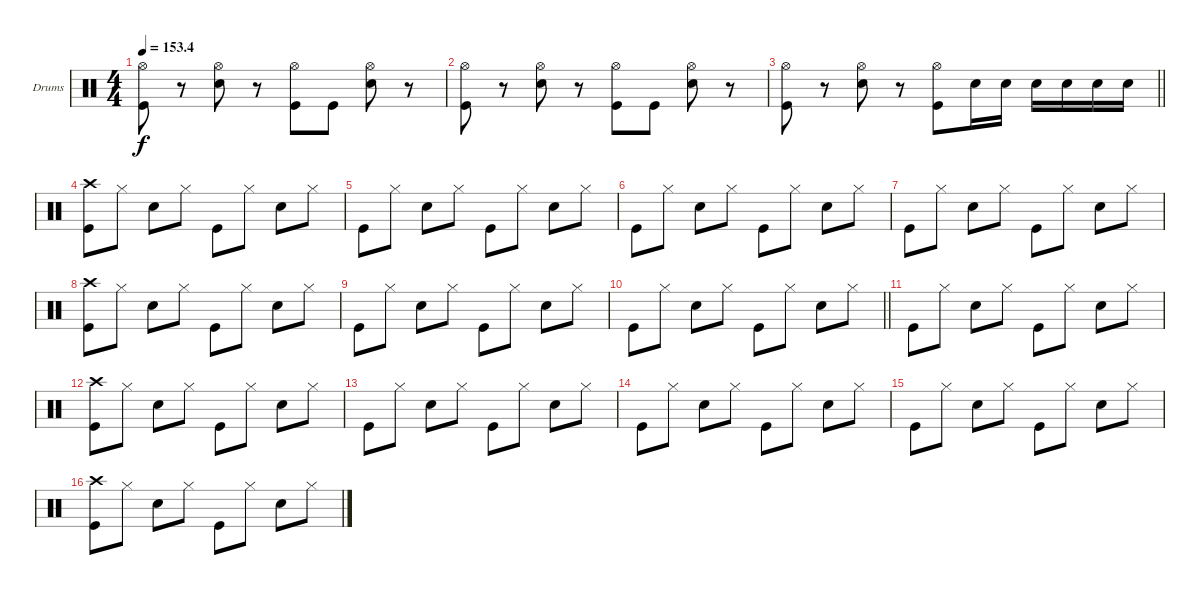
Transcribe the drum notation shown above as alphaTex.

\bracketExtendMode groupsimilarinstruments
\firstSystemTrackNameOrientation horizontal
\otherSystemsTrackNameOrientation horizontal
\track ("Drumkit" "Drums") {instrument percussion}
\staff {score}
\articulation defaults
\ts (4 4)
\tempo
153.4
\accidentals auto
\clef neutral
\ottava regular
\simile none
\ks c
("Hi-Hat (open)" "Kick (hit)").8{dy f} r.8 ("Hi-Hat (open)" "Snare (hit) 2").8 r.8 ("Hi-Hat (open)" "Kick (hit)").8 "Kick (hit)".8 ("Hi-Hat (open)" "Snare (hit) 2").8 r.8 |
("Hi-Hat (open)" "Kick (hit)").8 r.8 ("Hi-Hat (open)" "Snare (hit) 2").8 r.8 ("Hi-Hat (open)" "Kick (hit)").8 "Kick (hit)".8 ("Hi-Hat (open)" "Snare (hit) 2").8 r.8 |
\barLineRight lightlight
("Hi-Hat (open)" "Kick (hit)").8 r.8 ("Hi-Hat (open)" "Snare (hit) 2").8 r.8 ("Hi-Hat (open)" "Kick (hit)").8 "Snare (hit) 2".16 "Snare (hit) 2".16 "Snare (hit) 2".16 "Snare (hit) 2".16 "Snare (hit) 2".16 "Snare (hit) 2".16 |
("Crash high (hit)" "Kick (hit)").8 "Hi-Hat (closed)".8 "Snare (hit) 2".8 "Hi-Hat (closed)".8 "Kick (hit)".8 "Hi-Hat (closed)".8 "Snare (hit) 2".8 "Hi-Hat (closed)".8 |
"Kick (hit)".8 "Hi-Hat (closed)".8 "Snare (hit) 2".8 "Hi-Hat (closed)".8 "Kick (hit)".8 "Hi-Hat (closed)".8 "Snare (hit) 2".8 "Hi-Hat (closed)".8 |
"Kick (hit)".8 "Hi-Hat (closed)".8 "Snare (hit) 2".8 "Hi-Hat (closed)".8 "Kick (hit)".8 "Hi-Hat (closed)".8 "Snare (hit) 2".8 "Hi-Hat (closed)".8 |
"Kick (hit)".8 "Hi-Hat (closed)".8 "Snare (hit) 2".8 "Hi-Hat (closed)".8 "Kick (hit)".8 "Hi-Hat (closed)".8 "Snare (hit) 2".8 "Hi-Hat (closed)".8 |
("Crash high (hit)" "Kick (hit)").8 "Hi-Hat (closed)".8 "Snare (hit) 2".8 "Hi-Hat (closed)".8 "Kick (hit)".8 "Hi-Hat (closed)".8 "Snare (hit) 2".8 "Hi-Hat (closed)".8 |
"Kick (hit)".8 "Hi-Hat (closed)".8 "Snare (hit) 2".8 "Hi-Hat (closed)".8 "Kick (hit)".8 "Hi-Hat (closed)".8 "Snare (hit) 2".8 "Hi-Hat (closed)".8 |
\barLineRight lightlight "Kick (hit)".8 "Hi-Hat (closed)".8 "Snare (hit) 2".8 "Hi-Hat (closed)".8 "Kick (hit)".8 "Hi-Hat (closed)".8 "Snare (hit) 2".8 "Hi-Hat (closed)".8
|
"Kick (hit)".8 "Hi-Hat (closed)".8 "Snare (hit) 2".8 "Hi-Hat (closed)".8 "Kick (hit)".8 "Hi-Hat (closed)".8 "Snare (hit) 2".8 "Hi-Hat (closed)".8 |
("Crash high (hit)" "Kick (hit)").8 "Hi-Hat (closed)".8 "Snare (hit) 2".8 "Hi-Hat (closed)".8 "Kick (hit)".8 "Hi-Hat (closed)".8 "Snare (hit) 2".8 "Hi-Hat (closed)".8 |
"Kick (hit)".8 "Hi-Hat (closed)".8 "Snare (hit) 2".8 "Hi-Hat (closed)".8 "Kick (hit)".8 "Hi-Hat (closed)".8 "Snare (hit) 2".8 "Hi-Hat (closed)".8 |
"Kick (hit)".8 "Hi-Hat (closed)".8 "Snare (hit) 2".8 "Hi-Hat (closed)".8 "Kick (hit)".8 "Hi-Hat (closed)".8 "Snare (hit) 2".8 "Hi-Hat (closed)".8 |
"Kick (hit)".8 "Hi-Hat (closed)".8 "Snare (hit) 2".8 "Hi-Hat (closed)".8 "Kick (hit)".8 "Hi-Hat (closed)".8 "Snare (hit) 2".8 "Hi-Hat (closed)".8 |
("Crash high (hit)" "Kick (hit)").8 "Hi-Hat (closed)".8 "Snare (hit) 2".8 "Hi-Hat (closed)".8 "Kick (hit)".8 "Hi-Hat (closed)".8 "Snare (hit) 2".8 "Hi-Hat (closed)".8
